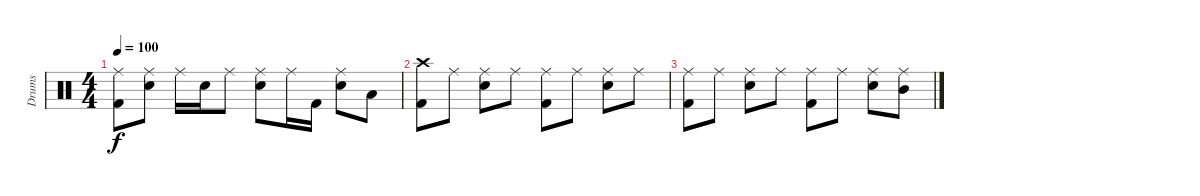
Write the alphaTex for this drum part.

\track ("Drums" "Drums") {instrument percussion}
\staff {score}
\articulation defaults
\ts (4 4)
\tempo 100
\clef neutral
\ks c
("Ride (middle)" "Kick (hit) 2").8{dy f} ("Ride (middle)" "Snare (hit) 2").8 "Ride (middle)".16 "Snare (hit) 2".16 "Ride (middle)".8 ("Ride (middle)" "Snare (hit) 2").8 "Ride (middle)".16 "Kick (hit) 2".16 ("Ride (middle)" "Snare (hit) 2").8 "Low Tom (hit)".8 |
("Crash high (hit)" "Kick (hit) 2").8{volume 0} "Ride (middle)".8 ("Ride (middle)" "Snare (hit) 2").8 "Ride (middle)".8 ("Ride (middle)" "Kick (hit) 2").8 "Ride (middle)".8 ("Ride (middle)" "Snare (hit) 2").8 "Ride (middle)".8 |
("Ride (middle)" "Kick (hit) 2").8 "Ride (middle)".8 ("Ride (middle)" "Snare (hit) 2").8 "Ride (middle)".8 ("Ride (middle)" "Kick (hit) 2").8 "Ride (middle)".8 ("Ride (middle)" "Snare (hit) 2").8 ("Ride (middle)" "Mid Tom (hit)").8
